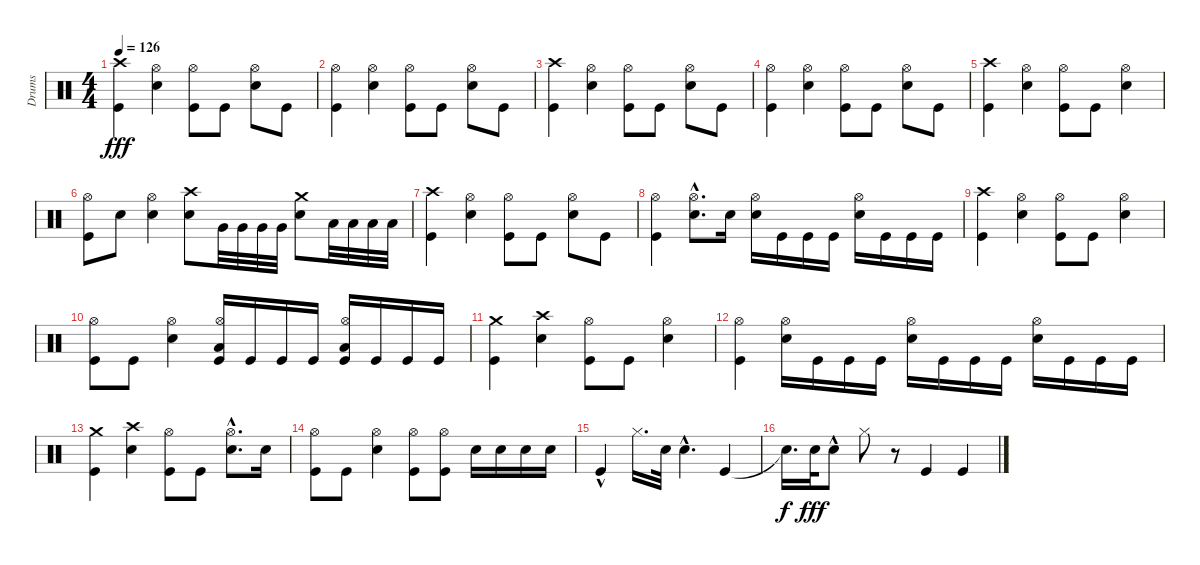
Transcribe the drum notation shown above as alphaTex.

\track ("Drums" "Drums") {instrument percussion}
\staff {score}
\articulation defaults
\ts (4 4)
\tempo 126
\clef neutral
\ks c
("Kick (hit)" "Crash high (hit)").4{dy fff} ("Snare (hit) 2" "Hi-Hat (open)").4 ("Kick (hit)" "Hi-Hat (open)").8 "Kick (hit)".8 ("Snare (hit) 2" "Hi-Hat (open)").8 "Kick (hit)".8 |
("Kick (hit)" "Hi-Hat (open)").4 ("Snare (hit) 2" "Hi-Hat (open)").4 ("Kick (hit)" "Hi-Hat (open)").8 "Kick (hit)".8 ("Snare (hit) 2" "Hi-Hat (open)").8 "Kick (hit)".8 |
("Kick (hit)" "Crash high (hit)").4 ("Snare (hit) 2" "Hi-Hat (open)").4 ("Kick (hit)" "Hi-Hat (open)").8 "Kick (hit)".8 ("Snare (hit) 2" "Hi-Hat (open)").8 "Kick (hit)".8 |
("Kick (hit)" "Hi-Hat (open)").4 ("Snare (hit) 2" "Hi-Hat (open)").4 ("Kick (hit)" "Hi-Hat (open)").8 "Kick (hit)".8 ("Snare (hit) 2" "Hi-Hat (open)").8 "Kick (hit)".8 |
("Kick (hit)" "Crash high (hit)").4 ("Snare (hit) 2" "Hi-Hat (open)").4 ("Kick (hit)" "Hi-Hat (open)").8 "Kick (hit)".8 ("Snare (hit) 2" "Hi-Hat (open)").4 |
("Kick (hit)" "Hi-Hat (open)").8 "Snare (hit) 2".8 ("Snare (hit) 2" "Hi-Hat (open)").4 ("Snare (hit) 2" "Crash high (hit)").8 "Very Low Tom (hit)".32 "Very Low Tom (hit)".32 "Very Low Tom (hit)".32 "Very Low Tom (hit)".32 ("Snare (hit) 2" "Crash medium (hit)").8 "Low Floor Tom (hit)".32 "Low Floor Tom (hit)".32 "Low Floor Tom (hit)".32 "Low Floor Tom (hit)".32 |
("Kick (hit)" "Crash high (hit)").4 ("Snare (hit) 2" "Hi-Hat (open)").4 ("Kick (hit)" "Hi-Hat (open)").8 "Kick (hit)".8 ("Snare (hit) 2" "Hi-Hat (open)").8 "Kick (hit)".8 |
("Kick (hit)" "Hi-Hat (open)").4 ("Snare (hit) 2"{hac} "Hi-Hat (open)").8{d} "Snare (hit) 2".16 ("Snare (hit) 2" "Hi-Hat (open)").16 "Kick (hit)".16 "Kick (hit)".16 "Kick (hit)".16 ("Snare (hit) 2" "Hi-Hat (open)").16 "Kick (hit)".16 "Kick (hit)".16 "Kick (hit)".16 |
("Kick (hit)" "Crash high (hit)").4 ("Snare (hit) 2" "Hi-Hat (open)").4 ("Kick (hit)" "Hi-Hat (open)").8 "Kick (hit)".8 ("Snare (hit) 2" "Hi-Hat (open)").4 |
("Kick (hit)" "Hi-Hat (open)").8 "Kick (hit)".8 ("Snare (hit) 2" "Hi-Hat (open)").4 ("Kick (hit)" "Low Floor Tom (hit)" "Hi-Hat (open)").16 "Kick (hit)".16 "Kick (hit)".16 "Kick (hit)".16 ("Kick (hit)" "Low Floor Tom (hit)" "Hi-Hat (open)").16 "Kick (hit)".16 "Kick (hit)".16 "Kick (hit)".16 |
("Kick (hit)" "Crash medium (hit)").4 ("Snare (hit) 2" "Crash high (hit)").4 ("Kick (hit)" "Hi-Hat (open)").8 "Kick (hit)".8 ("Snare (hit) 2" "Hi-Hat (open)").4 |
("Kick (hit)" "Hi-Hat (open)").4 ("Snare (hit) 2" "Hi-Hat (open)").16 "Kick (hit)".16 "Kick (hit)".16 "Kick (hit)".16 ("Snare (hit) 2" "Hi-Hat (open)").16 "Kick (hit)".16 "Kick (hit)".16 "Kick (hit)".16 ("Snare (hit) 2" "Hi-Hat (open)").16 "Kick (hit)".16 "Kick (hit)".16 "Kick (hit)".16 |
("Kick (hit)" "Crash medium (hit)").4 ("Snare (hit) 2" "Crash high (hit)").4 ("Kick (hit)" "Hi-Hat (open)").8 "Kick (hit)".8 ("Snare (hit) 2"{hac} "Hi-Hat (open)").8{d} "Snare (hit) 2".16 |
("Kick (hit)" "Hi-Hat (open)").8 "Kick (hit)".8 ("Snare (hit) 2" "Hi-Hat (open)").4 ("Kick (hit)" "Hi-Hat (open)").8 ("Kick (hit)" "Hi-Hat (open)").8 "Snare (hit) 2".16 "Snare (hit) 2".16 "Snare (hit) 2".16 "Snare (hit) 2".16 |
"Kick (hit)"{hac}.4 "Hi-Hat (closed)".16{d} "Snare (hit) 2".32 "Snare (hit) 2"{hac}.4{d} "Kick (hit)".4 |
"Snare (hit)"{t}.16{d dy f} "Snare (hit) 2".32{dy fff} "Snare (hit) 2"{hac}.8 "Hi-Hat (closed)".8 r.8 "Kick (hit)".4 "Kick (hit)".4
